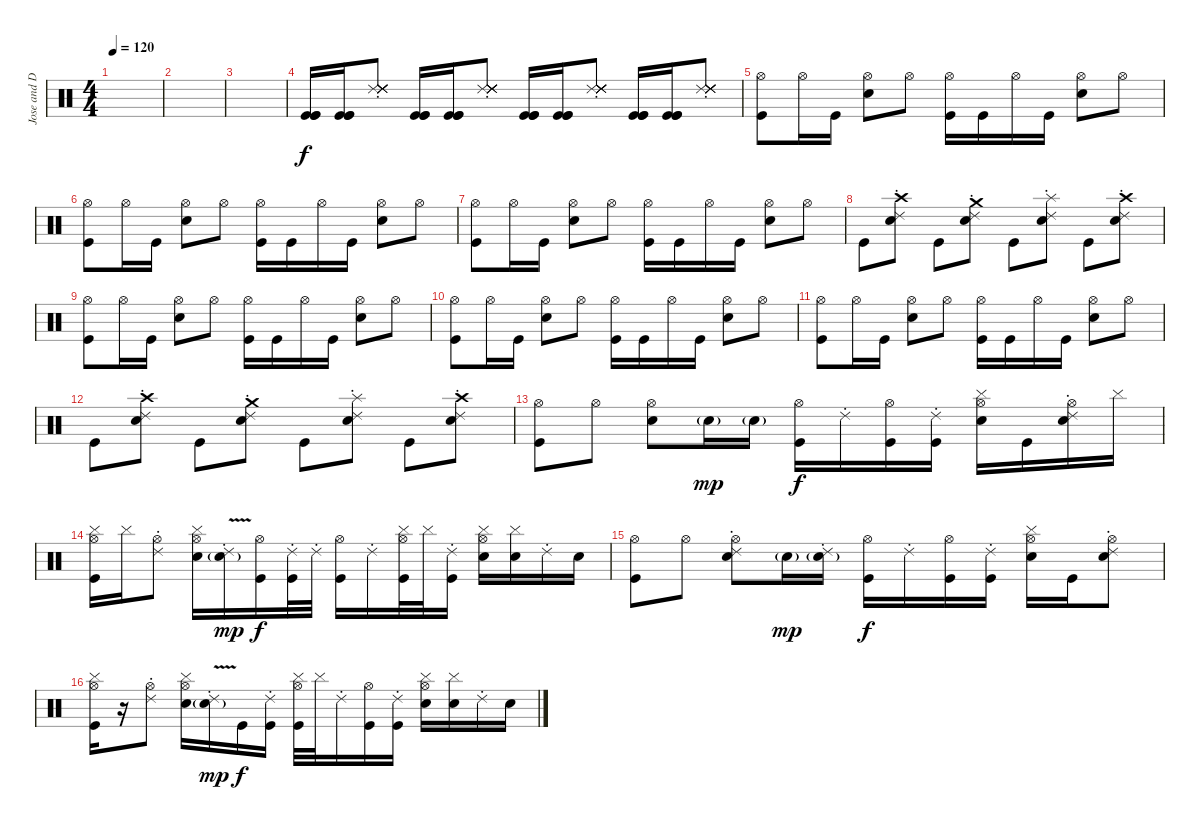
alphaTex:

\track ("Jose and Dj" "Jose and D") {instrument percussion}
\staff {score}
\articulation defaults
\ts (4 4)
\tempo 120
\clef neutral
\ks c
|
|
|
("Kick (hit)" "Kick (hit)" "Kick (hit)").16 ("Kick (hit)" "Kick (hit)" "Kick (hit)").16 ("Ride (choke) 2" "Ride (choke) 2" "Ride (choke) 2" "Ride (choke) 2" "Ride (choke) 2" "Ride (choke) 2").8 ("Kick (hit)" "Kick (hit)" "Kick (hit)").16 ("Kick (hit)" "Kick (hit)" "Kick (hit)").16 ("Ride (choke) 2" "Ride (choke) 2" "Ride (choke) 2" "Ride (choke) 2" "Ride (choke) 2" "Ride (choke) 2").8 ("Kick (hit)" "Kick (hit)" "Kick (hit)").16 ("Kick (hit)" "Kick (hit)" "Kick (hit)").16 ("Ride (choke) 2" "Ride (choke) 2" "Ride (choke) 2" "Ride (choke) 2" "Ride (choke) 2" "Ride (choke) 2").8 ("Kick (hit)" "Kick (hit)" "Kick (hit)").16 ("Kick (hit)" "Kick (hit)" "Kick (hit)").16 ("Ride (choke) 2" "Ride (choke) 2" "Ride (choke) 2" "Ride (choke) 2" "Ride (choke) 2" "Ride (choke) 2").8 |
("Hi-Hat (open)" "Kick (hit)").8 "Hi-Hat (open)".16 "Kick (hit)".16 ("Hi-Hat (open)" "Snare (hit) 2").8 "Hi-Hat (open)".8 ("Hi-Hat (open)" "Kick (hit)").16 "Kick (hit)".16 "Hi-Hat (open)".16 "Kick (hit)".16 ("Hi-Hat (open)" "Snare (hit) 2").8 "Hi-Hat (open)".8 |
("Hi-Hat (open)" "Kick (hit)").8 "Hi-Hat (open)".16 "Kick (hit)".16 ("Hi-Hat (open)" "Snare (hit) 2").8 "Hi-Hat (open)".8 ("Hi-Hat (open)" "Kick (hit)").16 "Kick (hit)".16 "Hi-Hat (open)".16 "Kick (hit)".16 ("Hi-Hat (open)" "Snare (hit) 2").8 "Hi-Hat (open)".8 |
("Hi-Hat (open)" "Kick (hit)").8 "Hi-Hat (open)".16 "Kick (hit)".16 ("Hi-Hat (open)" "Snare (hit) 2").8 "Hi-Hat (open)".8 ("Hi-Hat (open)" "Kick (hit)").16 "Kick (hit)".16 "Hi-Hat (open)".16 "Kick (hit)".16 ("Hi-Hat (open)" "Snare (hit) 2").8 "Hi-Hat (open)".8 |
"Kick (hit)".8 ("Crash high (hit)" "Ride (choke) 2" "Snare (hit) 2").8 "Kick (hit)".8 ("Crash medium (hit)" "Ride (choke) 2" "Snare (hit) 2").8 "Kick (hit)".8 ("Splash (hit)" "Snare (hit) 2" "Ride (choke) 2").8 "Kick (hit)".8 ("Crash high (hit)" "Snare (hit) 2" "Ride (choke) 2").8 |
("Hi-Hat (open)" "Kick (hit)").8 "Hi-Hat (open)".16 "Kick (hit)".16 ("Hi-Hat (open)" "Snare (hit) 2").8 "Hi-Hat (open)".8 ("Hi-Hat (open)" "Kick (hit)").16 "Kick (hit)".16 "Hi-Hat (open)".16 "Kick (hit)".16 ("Hi-Hat (open)" "Snare (hit) 2").8 "Hi-Hat (open)".8 |
("Hi-Hat (open)" "Kick (hit)").8 "Hi-Hat (open)".16 "Kick (hit)".16 ("Hi-Hat (open)" "Snare (hit) 2").8 "Hi-Hat (open)".8 ("Hi-Hat (open)" "Kick (hit)").16 "Kick (hit)".16 "Hi-Hat (open)".16 "Kick (hit)".16 ("Hi-Hat (open)" "Snare (hit) 2").8 "Hi-Hat (open)".8 |
("Hi-Hat (open)" "Kick (hit)").8 "Hi-Hat (open)".16 "Kick (hit)".16 ("Hi-Hat (open)" "Snare (hit) 2").8 "Hi-Hat (open)".8 ("Hi-Hat (open)" "Kick (hit)").16 "Kick (hit)".16 "Hi-Hat (open)".16 "Kick (hit)".16 ("Hi-Hat (open)" "Snare (hit) 2").8 "Hi-Hat (open)".8 |
"Kick (hit)".8 ("Crash high (hit)" "Snare (hit) 2" "Ride (choke) 2").8 "Kick (hit)".8 ("Crash medium (hit)" "Snare (hit) 2" "Ride (choke) 2").8 "Kick (hit)".8 ("Splash (hit)" "Snare (hit) 2" "Ride (choke) 2").8 "Kick (hit)".8 ("Crash high (hit)" "Snare (hit) 2" "Ride (choke) 2").8 |
("Hi-Hat (open)" "Kick (hit)").8 "Hi-Hat (open)".8 ("Hi-Hat (open)" "Snare (hit) 2").8 "Snare (hit) 2"{g}.16{dy mp} "Snare (hit) 2"{g}.16 ("Hi-Hat (open)" "Kick (hit)").16{dy f} "Ride (choke) 2".16 ("Hi-Hat (open)" "Kick (hit)").16 ("Ride (choke) 2" "Kick (hit)").16 ("Hi-Hat (open)" "Snare (hit) 2" "Cymbal (hit)").16 "Kick (hit)".16 ("Hi-Hat (open)" "Snare (hit) 2" "Ride (choke) 2").16 "Cymbal (hit)".16 |
("Hi-Hat (open)" "Cymbal (hit)" "Kick (hit)").16 "Cymbal (hit)".16 ("Hi-Hat (open)" "Ride (choke) 2").8 ("Hi-Hat (open)" "Snare (hit) 2" "Cymbal (hit)").16 ("Snare (hit) 2"{v g} "Ride (choke) 2"{v}).16{dy mp} ("Hi-Hat (open)" "Kick (hit)").16{dy f} ("Ride (choke) 2" "Kick (hit)").32 "Ride (choke) 2".32 ("Hi-Hat (open)" "Kick (hit)").16 "Ride (choke) 2".16 ("Hi-Hat (open)" "Cymbal (hit)" "Kick (hit)").32 "Cymbal (hit)".32 ("Ride (choke) 2" "Kick (hit)").16 ("Hi-Hat (open)" "Snare (hit) 2" "Cymbal (hit)").16 ("Snare (hit) 2" "Cymbal (hit)").16 "Ride (choke) 2".16 "Snare (hit) 2".16 |
("Hi-Hat (open)" "Kick (hit)").8 "Hi-Hat (open)".8 ("Hi-Hat (open)" "Snare (hit) 2" "Ride (choke) 2").8 "Snare (hit) 2"{g}.16{dy mp} ("Snare (hit) 2"{g} "Ride (choke) 2").16 ("Hi-Hat (open)" "Kick (hit)").16{dy f} "Ride (choke) 2".16 ("Hi-Hat (open)" "Kick (hit)").16 ("Ride (choke) 2" "Kick (hit)").16 ("Hi-Hat (open)" "Snare (hit) 2" "Cymbal (hit)").16 "Kick (hit)".16 ("Hi-Hat (open)" "Snare (hit) 2" "Ride (choke) 2").8 |
("Hi-Hat (open)" "Cymbal (hit)" "Kick (hit)").16 r.16 ("Hi-Hat (open)" "Ride (choke) 2").8 ("Hi-Hat (open)" "Snare (hit) 2" "Cymbal (hit)").16 ("Snare (hit) 2"{v g} "Ride (choke) 2"{v}).16{dy mp} "Kick (hit)".16{dy f} ("Ride (choke) 2" "Kick (hit)").16 ("Hi-Hat (open)" "Cymbal (hit)" "Kick (hit)").32 "Cymbal (hit)".32 "Ride (choke) 2".16 ("Hi-Hat (open)" "Kick (hit)").16 ("Ride (choke) 2" "Kick (hit)").16 ("Hi-Hat (open)" "Snare (hit) 2" "Cymbal (hit)").16 ("Snare (hit) 2" "Cymbal (hit)").16 "Ride (choke) 2".16 "Snare (hit) 2".16
